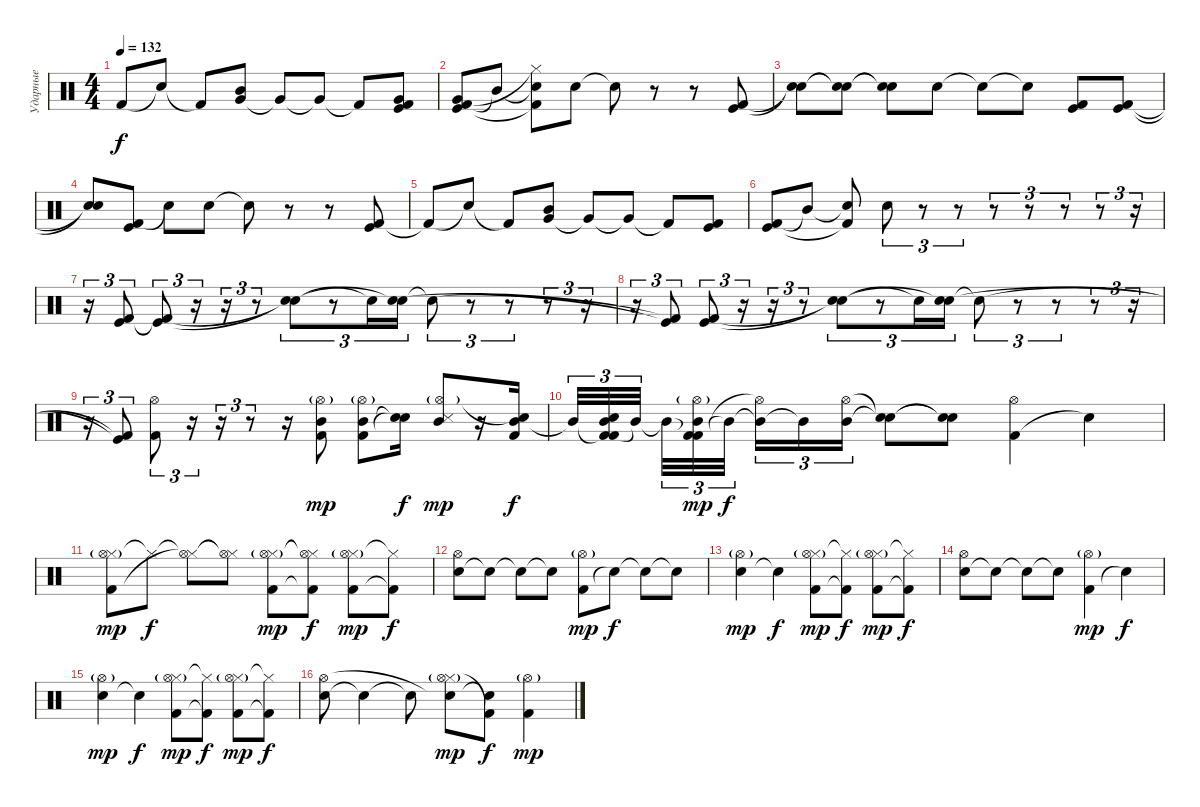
\track ("Ударные" "Ударные") {instrument percussion}
\staff {score}
\articulation defaults
\ts (4 4)
\tempo 132
\clef neutral
\ks c "Kick (hit) 2"{t}.8{dy f} "Snare (hit)"{t}.8 "Kick (hit) 2"{t}.8
("Very Low Tom (hit)" "Mid Tom (hit)").8 "Very Low Tom (hit)"{t}.8 "Very Low Tom (hit)"{t}.8 "Kick (hit) 2"{t}.8 ("Kick (hit) 2" "Kick (hit)" "Very Low Tom (hit)").8 |
("Kick (hit) 2" "Kick (hit)" "Very Low Tom (hit)").8 "Mid Tom (hit)"{t}.8 ("Snare (hit)"{t} "Kick (hit) 2"{t} "Hi-Hat (closed)"{t}).8 "Snare (hit) 2".8 "Snare (hit) 2"{t}.8 r.8 r.8 ("Kick (hit) 2" "Kick (hit)").8 |
("Snare (hit)"{t} "Snare (hit)"{t}).8 ("Snare (hit)"{t} "Snare (hit)"{t}).8 ("Snare (hit) 2"{t} "Snare (hit)"{t}).8 "Snare (hit) 2".8 "Snare (hit)"{t}.8 "Snare (hit)"{t}.8 ("Kick (hit) 2" "Kick (hit)").8 ("Kick (hit) 2" "Kick (hit)").8 |
("Snare (hit)"{t} "Snare (hit)"{t}).8 ("Kick (hit) 2" "Kick (hit)").8 "Snare (hit) 2"{t}.8 "Snare (hit) 2".8 "Snare (hit) 2"{t}.8 r.8 r.8 ("Kick (hit) 2" "Kick (hit)").8 |
"Kick (hit) 2"{t}.8 "Snare (hit)"{t}.8 "Kick (hit) 2"{t}.8 ("Very Low Tom (hit)" "Mid Tom (hit)").8 "Very Low Tom (hit)"{t}.8 "Very Low Tom (hit)"{t}.8 "Kick (hit) 2"{t}.8 ("Kick (hit) 2" "Kick (hit)").8 |
("Kick (hit) 2" "Kick (hit)").8 "Mid Tom (hit)"{t}.8 ("Snare (hit)"{t} "Kick (hit) 2"{t}).8 "Snare (hit) 2".8{tu (3 2)} r.8{tu (3 2)} r.8{tu (3 2)} r.8{tu (3 2)} r.8{tu (3 2)} r.8{tu (3 2)} r.8{tu (3 2)} r.16{tu (3 2)} |
r.16{tu (3 2)} ("Kick (hit)" "Kick (hit) 2").8{tu (3 2)} ("Kick (hit) 2"{t} "Kick (hit)"{t}).8{tu (3 2)} r.16{tu (3 2)} r.16{tu (3 2)} r.8{tu (3 2)} ("Snare (hit) 2"{t} "Snare (hit)"{t}).8{tu (3 2)} r.8{tu (3 2)} "Snare (hit)"{t}.16{tu (3 2)} ("Snare (hit) 2" "Snare (hit)"{t}).16{tu (3 2)} "Snare (hit) 2"{t}.8{tu (3 2)} r.8{tu (3 2)} r.8{tu (3 2)} r.8{tu (3 2)} r.16{tu (3 2)} |
r.16{tu (3 2)} ("Kick (hit)"{t} "Kick (hit) 2"{t}).8{tu (3 2)} ("Kick (hit)" "Kick (hit) 2").8{tu (3 2)} r.16{tu (3 2)} r.16{tu (3 2)} r.8{tu (3 2)} ("Snare (hit) 2"{t} "Snare (hit)"{t}).8{tu (3 2)} r.8{tu (3 2)} "Snare (hit)"{t}.16{tu (3 2)} ("Electric Snare (hit)" "Snare (hit)"{t}).16{tu (3 2)} "Snare (hit) 2"{t}.8{tu (3 2)} r.8{tu (3 2)} r.8{tu (3 2)} r.8{tu (3 2)} r.16{tu (3 2)} |
r.16{tu (3 2)} ("Kick (hit)"{t} "Kick (hit) 2"{t}).8{tu (3 2)} ("Hi-Hat (open)" "Kick (hit) 2").8{tu (3 2)} r.16{tu (3 2)} r.16{tu (3 2)} r.8{tu (3 2)} r.16 ("Kick (hit) 2" "Mid Tom (hit)" "Hi-Hat (open)"{g}).8{dy mp} ("Kick (hit) 2" "Mid Tom (hit)" "Hi-Hat (open)"{g}).8 ("Snare (hit)"{t} "Snare (hit)"{t}).16{dy f} ("Snare (side stick) 3" "Mid Tom (hit)" "Hi-Hat (open)"{g}).8{dy mp} r.16 ("Mid Tom (hit)" "Kick (hit) 2" "Snare (hit) 2"{t}).16{dy f} |
"Mid Tom (hit)"{t}.32{tu (3 2)} ("Kick (hit) 2"{t} "Mid Tom (hit)" "Kick (hit) 2" "Snare (hit) 2").32{tu (3 2)} "Mid Tom (hit)"{t}.32{tu (3 2) beam splitsecondary} "Mid Tom (hit)"{t}.32{tu (3 2)} ("Kick (hit) 2"{t} "Mid Tom (hit)" "Kick (hit) 2" "Hi-Hat (open)"{g}).32{tu (3 2) dy mp} "Mid Tom (hit)"{t}.32{tu (3 2) dy f beam splitsecondary} ("Mid Tom (hit)"{t} "Hi-Hat (open)"{t}).16{tu (3 2)} "Mid Tom (hit)"{t}.16{tu (3 2)} ("Mid Tom (hit)" "Hi-Hat (open)").16{tu (3 2)} ("Snare (hit)"{t} "Snare (hit)"{t}).8 ("Snare (hit)"{t} "Snare (hit)"{t}).8 ("Kick (hit) 2" "Hi-Hat (open)").4 "Snare (hit) 2"{t}.4 |
("Hi-Hat (closed)" "Kick (hit) 2" "Hi-Hat (open)"{g}).8{dy mp} "Hi-Hat (closed)"{t}.8{dy f} ("Hi-Hat (closed)"{t} "Hi-Hat (open)"{t}).8 ("Hi-Hat (closed)"{t} "Hi-Hat (open)"{t}).8 ("Hi-Hat (closed)" "Kick (hit) 2" "Hi-Hat (open)"{g}).8{dy mp} ("Hi-Hat (closed)"{t} "Kick (hit) 2"{t} "Hi-Hat (open)"{t}).8{dy f} ("Hi-Hat (closed)" "Kick (hit) 2" "Hi-Hat (open)"{g}).8{dy mp} ("Hi-Hat (closed)"{t} "Kick (hit) 2"{t}).8{dy f} |
("Snare (hit) 2" "Hi-Hat (open)").8 "Snare (hit)"{t}.8 "Snare (hit)"{t}.8 "Snare (hit)"{t}.8 ("Kick (hit) 2" "Hi-Hat (open)"{g}).8{dy mp} "Snare (hit)"{t}.8{dy f} "Snare (hit)"{t}.8 "Snare (hit)"{t}.8 |
("Snare (hit) 2" "Hi-Hat (open)"{g}).4{dy mp} "Snare (hit)"{t}.4{dy f} ("Hi-Hat (closed)" "Kick (hit) 2" "Hi-Hat (open)"{g}).8{dy mp} ("Hi-Hat (closed)"{t} "Kick (hit) 2"{t}).8{dy f} ("Hi-Hat (closed)" "Kick (hit) 2" "Hi-Hat (open)"{g}).8{dy mp} ("Hi-Hat (closed)"{t} "Kick (hit) 2"{t}).8{dy f} |
("Snare (hit) 2" "Hi-Hat (open)").8 "Snare (hit)"{t}.8 "Snare (hit)"{t}.8 "Snare (hit)"{t}.8 ("Kick (hit) 2" "Hi-Hat (open)"{g}).4{dy mp} "Snare (hit)"{t}.4{dy f} |
("Snare (hit) 2" "Hi-Hat (open)"{g}).4{dy mp} "Snare (hit)"{t}.4{dy f} ("Hi-Hat (closed)" "Kick (hit) 2" "Hi-Hat (open)"{g}).8{dy mp} ("Hi-Hat (closed)"{t} "Kick (hit) 2"{t}).8{dy f} ("Hi-Hat (closed)" "Kick (hit) 2" "Hi-Hat (open)"{g}).8{dy mp} ("Hi-Hat (closed)"{t} "Kick (hit) 2"{t}).8{dy f} |
("Snare (hit) 2" "Hi-Hat (open)").8 "Snare (hit)"{t}.4 "Snare (hit)"{t}.8 ("Hi-Hat (closed)" "Snare (hit)"{t} "Hi-Hat (open)"{g}).8{dy mp} ("Kick (hit) 2"{t} "Snare (hit)"{t}).8{dy f} ("Kick (hit) 2" "Hi-Hat (open)"{g}).4{dy mp}
